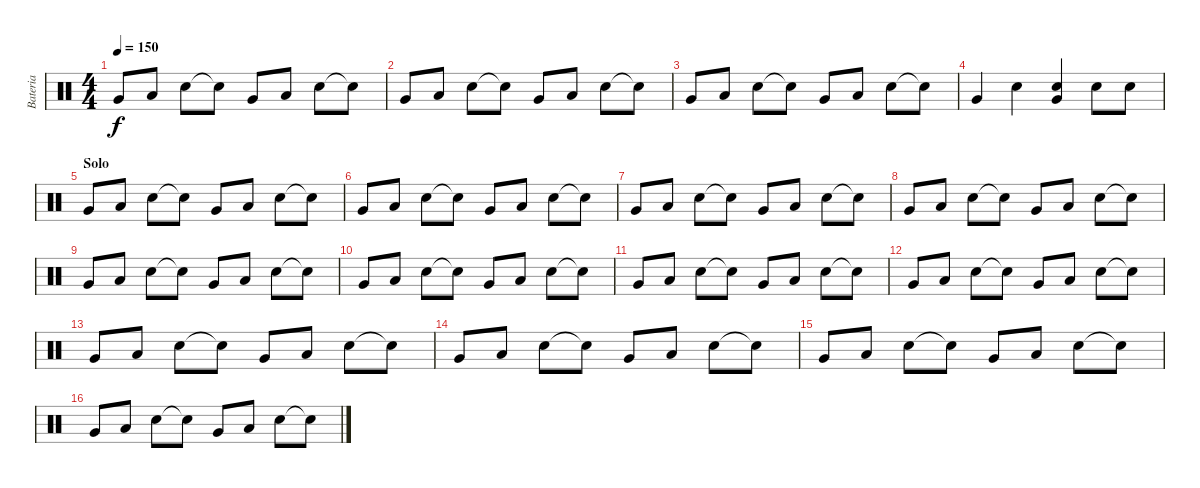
\track ("Bateria" "Bateria") {instrument percussion}
\staff {score}
\articulation defaults
\ts (4 4)
\tempo 150
\clef neutral
\ks c "Very Low Tom (hit)".8{dy f} "Low Floor Tom (hit)".8 "Snare (hit) 2".8 "Snare (hit)"{t}.8 "Very Low Tom (hit)".8 "Low Floor Tom (hit)".8 "Snare (hit) 2".8 "Snare (hit)"{t}.8
|
"Very Low Tom (hit)".8 "Low Floor Tom (hit)".8 "Snare (hit) 2".8 "Snare (hit)"{t}.8 "Very Low Tom (hit)".8 "Low Floor Tom (hit)".8 "Snare (hit) 2".8 "Snare (hit)"{t}.8 |
"Very Low Tom (hit)".8 "Low Floor Tom (hit)".8 "Snare (hit) 2".8 "Snare (hit)"{t}.8 "Very Low Tom (hit)".8 "Low Floor Tom (hit)".8 "Snare (hit) 2".8 "Snare (hit)"{t}.8 |
"Very Low Tom (hit)".4 "Snare (hit) 2".4 ("Very Low Tom (hit)" "Snare (hit) 2").4 "Snare (hit) 2".8 "Snare (hit) 2".8 |
\section ("" "Solo")
"Very Low Tom (hit)".8 "Low Floor Tom (hit)".8 "Snare (hit) 2".8 "Snare (hit)"{t}.8 "Very Low Tom (hit)".8 "Low Floor Tom (hit)".8 "Snare (hit) 2".8 "Snare (hit)"{t}.8 |
"Very Low Tom (hit)".8 "Low Floor Tom (hit)".8 "Snare (hit) 2".8 "Snare (hit)"{t}.8 "Very Low Tom (hit)".8 "Low Floor Tom (hit)".8 "Snare (hit) 2".8 "Snare (hit)"{t}.8 |
"Very Low Tom (hit)".8 "Low Floor Tom (hit)".8 "Snare (hit) 2".8 "Snare (hit)"{t}.8 "Very Low Tom (hit)".8 "Low Floor Tom (hit)".8 "Snare (hit) 2".8 "Snare (hit)"{t}.8 |
"Very Low Tom (hit)".8 "Low Floor Tom (hit)".8 "Snare (hit) 2".8 "Snare (hit)"{t}.8 "Very Low Tom (hit)".8 "Low Floor Tom (hit)".8 "Snare (hit) 2".8 "Snare (hit)"{t}.8 |
"Very Low Tom (hit)".8 "Low Floor Tom (hit)".8 "Snare (hit) 2".8 "Snare (hit)"{t}.8 "Very Low Tom (hit)".8 "Low Floor Tom (hit)".8 "Snare (hit) 2".8 "Snare (hit)"{t}.8 |
"Very Low Tom (hit)".8 "Low Floor Tom (hit)".8 "Snare (hit) 2".8 "Snare (hit)"{t}.8 "Very Low Tom (hit)".8 "Low Floor Tom (hit)".8 "Snare (hit) 2".8 "Snare (hit)"{t}.8 |
"Very Low Tom (hit)".8 "Low Floor Tom (hit)".8 "Snare (hit) 2".8 "Snare (hit)"{t}.8 "Very Low Tom (hit)".8 "Low Floor Tom (hit)".8 "Snare (hit) 2".8 "Snare (hit)"{t}.8 |
"Very Low Tom (hit)".8 "Low Floor Tom (hit)".8 "Snare (hit) 2".8 "Snare (hit)"{t}.8 "Very Low Tom (hit)".8 "Low Floor Tom (hit)".8 "Snare (hit) 2".8 "Snare (hit)"{t}.8 |
"Very Low Tom (hit)".8 "Low Floor Tom (hit)".8 "Snare (hit) 2".8 "Snare (hit)"{t}.8 "Very Low Tom (hit)".8 "Low Floor Tom (hit)".8 "Snare (hit) 2".8 "Snare (hit)"{t}.8 |
"Very Low Tom (hit)".8 "Low Floor Tom (hit)".8 "Snare (hit) 2".8 "Snare (hit)"{t}.8 "Very Low Tom (hit)".8 "Low Floor Tom (hit)".8 "Snare (hit) 2".8 "Snare (hit)"{t}.8 |
"Very Low Tom (hit)".8 "Low Floor Tom (hit)".8 "Snare (hit) 2".8 "Snare (hit)"{t}.8 "Very Low Tom (hit)".8 "Low Floor Tom (hit)".8 "Snare (hit) 2".8 "Snare (hit)"{t}.8 |
"Very Low Tom (hit)".8 "Low Floor Tom (hit)".8 "Snare (hit) 2".8 "Snare (hit)"{t}.8 "Very Low Tom (hit)".8 "Low Floor Tom (hit)".8 "Snare (hit) 2".8 "Snare (hit)"{t}.8
